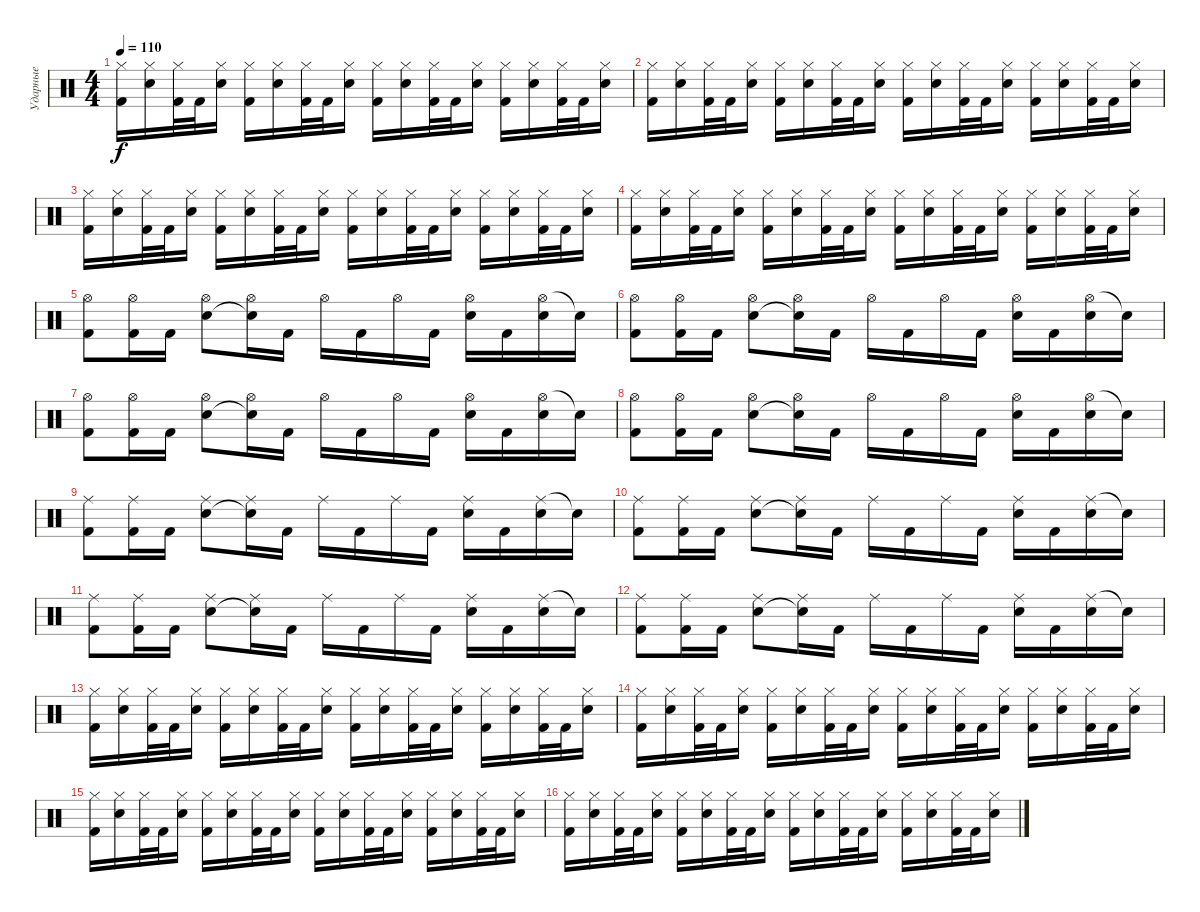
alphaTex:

\track ("Ударные" "Ударные") {instrument percussion}
\staff {score}
\articulation defaults
\ts (4 4)
\tempo 110
\clef neutral
\ks c
("Hi-Hat (closed)" "Kick (hit) 2").16{dy f} ("Hi-Hat (closed)" "Electric Snare (hit)").16 ("Hi-Hat (closed)" "Kick (hit) 2").32 "Kick (hit) 2".32 ("Hi-Hat (closed)" "Electric Snare (hit)").16 ("Hi-Hat (closed)" "Kick (hit) 2").16 ("Hi-Hat (closed)" "Electric Snare (hit)").16 ("Hi-Hat (closed)" "Kick (hit) 2").32 "Kick (hit) 2".32 ("Hi-Hat (closed)" "Electric Snare (hit)").16 ("Hi-Hat (closed)" "Kick (hit) 2").16 ("Hi-Hat (closed)" "Electric Snare (hit)").16 ("Hi-Hat (closed)" "Kick (hit) 2").32 "Kick (hit) 2".32 ("Hi-Hat (closed)" "Electric Snare (hit)").16 ("Hi-Hat (closed)" "Kick (hit) 2").16 ("Hi-Hat (closed)" "Electric Snare (hit)").16 ("Hi-Hat (closed)" "Kick (hit) 2").32 "Kick (hit) 2".32 ("Hi-Hat (closed)" "Electric Snare (hit)").16 |
("Hi-Hat (closed)" "Kick (hit) 2").16 ("Hi-Hat (closed)" "Electric Snare (hit)").16 ("Hi-Hat (closed)" "Kick (hit) 2").32 "Kick (hit) 2".32 ("Hi-Hat (closed)" "Electric Snare (hit)").16 ("Hi-Hat (closed)" "Kick (hit) 2").16 ("Hi-Hat (closed)" "Electric Snare (hit)").16 ("Hi-Hat (closed)" "Kick (hit) 2").32 "Kick (hit) 2".32 ("Hi-Hat (closed)" "Electric Snare (hit)").16 ("Hi-Hat (closed)" "Kick (hit) 2").16 ("Hi-Hat (closed)" "Electric Snare (hit)").16 ("Hi-Hat (closed)" "Kick (hit) 2").32 "Kick (hit) 2".32 ("Hi-Hat (closed)" "Electric Snare (hit)").16 ("Hi-Hat (closed)" "Kick (hit) 2").16 ("Hi-Hat (closed)" "Electric Snare (hit)").16 ("Hi-Hat (closed)" "Kick (hit) 2").32 "Kick (hit) 2".32 ("Hi-Hat (closed)" "Electric Snare (hit)").16 |
("Hi-Hat (closed)" "Kick (hit) 2").16 ("Hi-Hat (closed)" "Electric Snare (hit)").16 ("Hi-Hat (closed)" "Kick (hit) 2").32 "Kick (hit) 2".32 ("Hi-Hat (closed)" "Electric Snare (hit)").16 ("Hi-Hat (closed)" "Kick (hit) 2").16 ("Hi-Hat (closed)" "Electric Snare (hit)").16 ("Hi-Hat (closed)" "Kick (hit) 2").32 "Kick (hit) 2".32 ("Hi-Hat (closed)" "Electric Snare (hit)").16 ("Hi-Hat (closed)" "Kick (hit) 2").16 ("Hi-Hat (closed)" "Electric Snare (hit)").16 ("Hi-Hat (closed)" "Kick (hit) 2").32 "Kick (hit) 2".32 ("Hi-Hat (closed)" "Electric Snare (hit)").16 ("Hi-Hat (closed)" "Kick (hit) 2").16 ("Hi-Hat (closed)" "Electric Snare (hit)").16 ("Hi-Hat (closed)" "Kick (hit) 2").32 "Kick (hit) 2".32 ("Hi-Hat (closed)" "Electric Snare (hit)").16 |
("Hi-Hat (closed)" "Kick (hit) 2").16 ("Hi-Hat (closed)" "Electric Snare (hit)").16 ("Hi-Hat (closed)" "Kick (hit) 2").32 "Kick (hit) 2".32 ("Hi-Hat (closed)" "Electric Snare (hit)").16 ("Hi-Hat (closed)" "Kick (hit) 2").16 ("Hi-Hat (closed)" "Electric Snare (hit)").16 ("Hi-Hat (closed)" "Kick (hit) 2").32 "Kick (hit) 2".32 ("Hi-Hat (closed)" "Electric Snare (hit)").16 ("Hi-Hat (closed)" "Kick (hit) 2").16 ("Hi-Hat (closed)" "Electric Snare (hit)").16 ("Hi-Hat (closed)" "Kick (hit) 2").32 "Kick (hit) 2".32 ("Hi-Hat (closed)" "Electric Snare (hit)").16 ("Hi-Hat (closed)" "Kick (hit) 2").16 ("Hi-Hat (closed)" "Electric Snare (hit)").16 ("Hi-Hat (closed)" "Kick (hit) 2").32 "Kick (hit) 2".32 ("Hi-Hat (closed)" "Electric Snare (hit)").16 |
("Hi-Hat (open)" "Kick (hit) 2").8 ("Hi-Hat (open)" "Kick (hit) 2").16 "Kick (hit) 2".16 ("Hi-Hat (open)" "Electric Snare (hit)").8 ("Hi-Hat (open)" "Snare (hit)"{t}).16 "Kick (hit) 2".16 "Hi-Hat (open)".16 "Kick (hit) 2".16 "Hi-Hat (open)".16 "Kick (hit) 2".16 ("Hi-Hat (open)" "Electric Snare (hit)").16 "Kick (hit) 2".16 ("Hi-Hat (open)" "Electric Snare (hit)").16 "Snare (hit)"{t}.16 |
("Hi-Hat (open)" "Kick (hit) 2").8 ("Hi-Hat (open)" "Kick (hit) 2").16 "Kick (hit) 2".16 ("Hi-Hat (open)" "Electric Snare (hit)").8 ("Hi-Hat (open)" "Snare (hit)"{t}).16 "Kick (hit) 2".16 "Hi-Hat (open)".16 "Kick (hit) 2".16 "Hi-Hat (open)".16 "Kick (hit) 2".16 ("Hi-Hat (open)" "Electric Snare (hit)").16 "Kick (hit) 2".16 ("Hi-Hat (open)" "Electric Snare (hit)").16 "Snare (hit)"{t}.16 |
("Hi-Hat (open)" "Kick (hit) 2").8 ("Hi-Hat (open)" "Kick (hit) 2").16 "Kick (hit) 2".16 ("Hi-Hat (open)" "Electric Snare (hit)").8 ("Hi-Hat (open)" "Snare (hit)"{t}).16 "Kick (hit) 2".16 "Hi-Hat (open)".16 "Kick (hit) 2".16 "Hi-Hat (open)".16 "Kick (hit) 2".16 ("Hi-Hat (open)" "Electric Snare (hit)").16 "Kick (hit) 2".16 ("Hi-Hat (open)" "Electric Snare (hit)").16 "Snare (hit)"{t}.16 |
("Hi-Hat (open)" "Kick (hit) 2").8 ("Hi-Hat (open)" "Kick (hit) 2").16 "Kick (hit) 2".16 ("Hi-Hat (open)" "Electric Snare (hit)").8 ("Hi-Hat (open)" "Snare (hit)"{t}).16 "Kick (hit) 2".16 "Hi-Hat (open)".16 "Kick (hit) 2".16 "Hi-Hat (open)".16 "Kick (hit) 2".16 ("Hi-Hat (open)" "Electric Snare (hit)").16 "Kick (hit) 2".16 ("Hi-Hat (open)" "Electric Snare (hit)").16 "Snare (hit)"{t}.16 |
("Ride (middle)" "Kick (hit) 2").8 ("Ride (middle)" "Kick (hit) 2").16 "Kick (hit) 2".16 ("Ride (middle)" "Electric Snare (hit)").8 ("Ride (middle)" "Snare (hit)"{t}).16 "Kick (hit) 2".16 "Ride (middle)".16 "Kick (hit) 2".16 "Ride (middle)".16 "Kick (hit) 2".16 ("Ride (middle)" "Electric Snare (hit)").16 "Kick (hit) 2".16 ("Ride (middle)" "Electric Snare (hit)").16 "Snare (hit)"{t}.16 |
("Ride (middle)" "Kick (hit) 2").8 ("Ride (middle)" "Kick (hit) 2").16 "Kick (hit) 2".16 ("Ride (middle)" "Electric Snare (hit)").8 ("Ride (middle)" "Snare (hit)"{t}).16 "Kick (hit) 2".16 "Ride (middle)".16 "Kick (hit) 2".16 "Ride (middle)".16 "Kick (hit) 2".16 ("Ride (middle)" "Electric Snare (hit)").16 "Kick (hit) 2".16 ("Ride (middle)" "Electric Snare (hit)").16 "Snare (hit)"{t}.16 |
("Ride (middle)" "Kick (hit) 2").8 ("Ride (middle)" "Kick (hit) 2").16 "Kick (hit) 2".16 ("Ride (middle)" "Electric Snare (hit)").8 ("Ride (middle)" "Snare (hit)"{t}).16 "Kick (hit) 2".16 "Ride (middle)".16 "Kick (hit) 2".16 "Ride (middle)".16 "Kick (hit) 2".16 ("Ride (middle)" "Electric Snare (hit)").16 "Kick (hit) 2".16 ("Ride (middle)" "Electric Snare (hit)").16 "Snare (hit)"{t}.16 |
("Ride (middle)" "Kick (hit) 2").8 ("Ride (middle)" "Kick (hit) 2").16 "Kick (hit) 2".16 ("Ride (middle)" "Electric Snare (hit)").8 ("Ride (middle)" "Snare (hit)"{t}).16 "Kick (hit) 2".16 "Ride (middle)".16 "Kick (hit) 2".16 "Ride (middle)".16 "Kick (hit) 2".16 ("Ride (middle)" "Electric Snare (hit)").16 "Kick (hit) 2".16 ("Ride (middle)" "Electric Snare (hit)").16 "Snare (hit)"{t}.16 |
("Hi-Hat (closed)" "Kick (hit) 2").16 ("Hi-Hat (closed)" "Electric Snare (hit)").16 ("Hi-Hat (closed)" "Kick (hit) 2").32 "Kick (hit) 2".32 ("Hi-Hat (closed)" "Electric Snare (hit)").16 ("Hi-Hat (closed)" "Kick (hit) 2").16 ("Hi-Hat (closed)" "Electric Snare (hit)").16 ("Hi-Hat (closed)" "Kick (hit) 2").32 "Kick (hit) 2".32 ("Hi-Hat (closed)" "Electric Snare (hit)").16 ("Hi-Hat (closed)" "Kick (hit) 2").16 ("Hi-Hat (closed)" "Electric Snare (hit)").16 ("Hi-Hat (closed)" "Kick (hit) 2").32 "Kick (hit) 2".32 ("Hi-Hat (closed)" "Electric Snare (hit)").16 ("Hi-Hat (closed)" "Kick (hit) 2").16 ("Hi-Hat (closed)" "Electric Snare (hit)").16 ("Hi-Hat (closed)" "Kick (hit) 2").32 "Kick (hit) 2".32 ("Hi-Hat (closed)" "Electric Snare (hit)").16 |
("Hi-Hat (closed)" "Kick (hit) 2").16 ("Hi-Hat (closed)" "Electric Snare (hit)").16 ("Hi-Hat (closed)" "Kick (hit) 2").32 "Kick (hit) 2".32 ("Hi-Hat (closed)" "Electric Snare (hit)").16 ("Hi-Hat (closed)" "Kick (hit) 2").16 ("Hi-Hat (closed)" "Electric Snare (hit)").16 ("Hi-Hat (closed)" "Kick (hit) 2").32 "Kick (hit) 2".32 ("Hi-Hat (closed)" "Electric Snare (hit)").16 ("Hi-Hat (closed)" "Kick (hit) 2").16 ("Hi-Hat (closed)" "Electric Snare (hit)").16 ("Hi-Hat (closed)" "Kick (hit) 2").32 "Kick (hit) 2".32 ("Hi-Hat (closed)" "Electric Snare (hit)").16 ("Hi-Hat (closed)" "Kick (hit) 2").16 ("Hi-Hat (closed)" "Electric Snare (hit)").16 ("Hi-Hat (closed)" "Kick (hit) 2").32 "Kick (hit) 2".32 ("Hi-Hat (closed)" "Electric Snare (hit)").16 |
("Hi-Hat (closed)" "Kick (hit) 2").16 ("Hi-Hat (closed)" "Electric Snare (hit)").16 ("Hi-Hat (closed)" "Kick (hit) 2").32 "Kick (hit) 2".32 ("Hi-Hat (closed)" "Electric Snare (hit)").16 ("Hi-Hat (closed)" "Kick (hit) 2").16 ("Hi-Hat (closed)" "Electric Snare (hit)").16 ("Hi-Hat (closed)" "Kick (hit) 2").32 "Kick (hit) 2".32 ("Hi-Hat (closed)" "Electric Snare (hit)").16 ("Hi-Hat (closed)" "Kick (hit) 2").16 ("Hi-Hat (closed)" "Electric Snare (hit)").16 ("Hi-Hat (closed)" "Kick (hit) 2").32 "Kick (hit) 2".32 ("Hi-Hat (closed)" "Electric Snare (hit)").16 ("Hi-Hat (closed)" "Kick (hit) 2").16 ("Hi-Hat (closed)" "Electric Snare (hit)").16 ("Hi-Hat (closed)" "Kick (hit) 2").32 "Kick (hit) 2".32 ("Hi-Hat (closed)" "Electric Snare (hit)").16 |
("Hi-Hat (closed)" "Kick (hit) 2").16 ("Hi-Hat (closed)" "Electric Snare (hit)").16 ("Hi-Hat (closed)" "Kick (hit) 2").32 "Kick (hit) 2".32 ("Hi-Hat (closed)" "Electric Snare (hit)").16 ("Hi-Hat (closed)" "Kick (hit) 2").16 ("Hi-Hat (closed)" "Electric Snare (hit)").16 ("Hi-Hat (closed)" "Kick (hit) 2").32 "Kick (hit) 2".32 ("Hi-Hat (closed)" "Electric Snare (hit)").16 ("Hi-Hat (closed)" "Kick (hit) 2").16 ("Hi-Hat (closed)" "Electric Snare (hit)").16 ("Hi-Hat (closed)" "Kick (hit) 2").32 "Kick (hit) 2".32 ("Hi-Hat (closed)" "Electric Snare (hit)").16 ("Hi-Hat (closed)" "Kick (hit) 2").16 ("Hi-Hat (closed)" "Electric Snare (hit)").16 ("Hi-Hat (closed)" "Kick (hit) 2").32 "Kick (hit) 2".32 ("Hi-Hat (closed)" "Electric Snare (hit)").16
